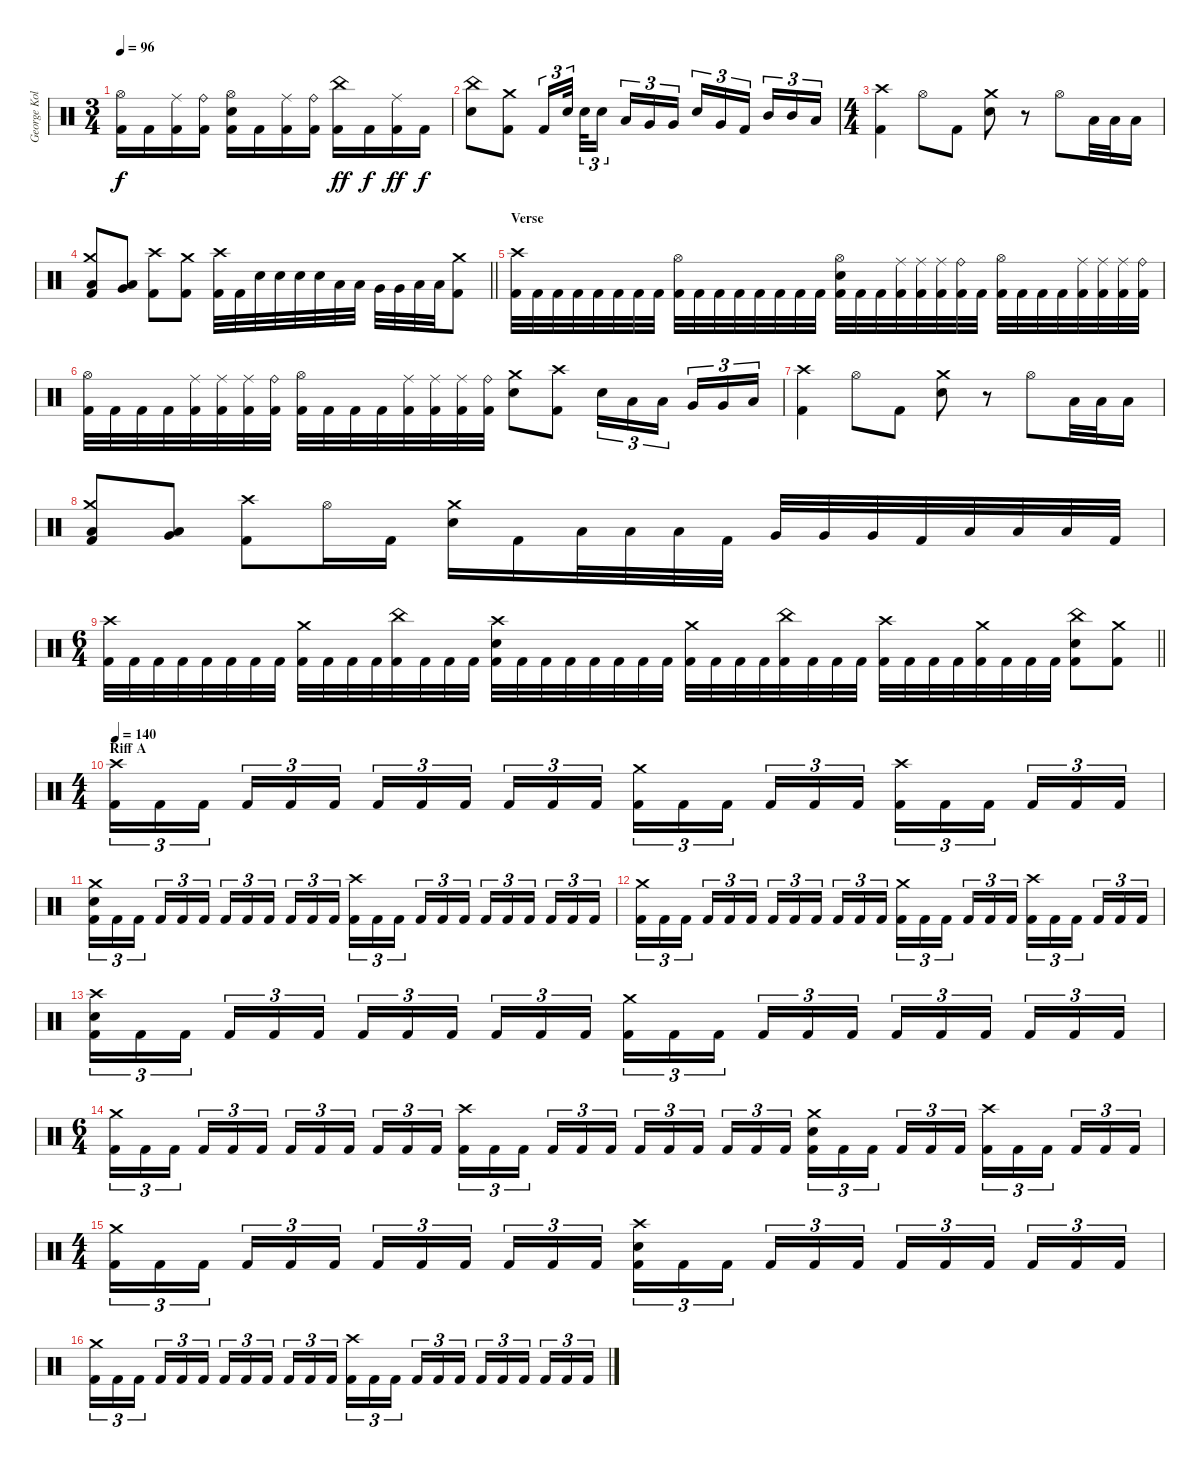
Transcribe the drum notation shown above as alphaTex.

\track ("George Kollias" "George Kol") {instrument percussion}
\staff {score}
\articulation defaults
\ts (3 4)
\tempo 96
\clef neutral
\ks c
("Hi-Hat (open)" "Kick (hit) 2").16{dy f} "Kick (hit) 2".16 ("Ride (middle)" "Kick (hit) 2").16 ("Ride (bell)" "Kick (hit) 2").16 ("Hi-Hat (open)" "Electric Snare (hit)" "Kick (hit) 2").16 "Kick (hit) 2".16 ("Ride (middle)" "Kick (hit) 2").16 ("Ride (bell)" "Kick (hit) 2").16 ("China (hit)" "Kick (hit) 2").16{dy ff} "Kick (hit) 2".16{dy f} ("Ride (middle)" "Kick (hit) 2").16{dy ff} "Kick (hit) 2".16{dy f} |
("China (hit)" "Electric Snare (hit)").8 ("Crash medium (hit)" "Kick (hit) 2").8 "Kick (hit) 2".16{tu (3 2)} "Electric Snare (hit)".32{tu (3 2) beam splitsecondary} "Electric Snare (hit)".32{tu (3 2)} "Electric Snare (hit)".16{tu (3 2) beam splitsecondary} "Low Tom (hit)".16{tu (3 2)} "Very Low Tom (hit)".16{tu (3 2)} "Very Low Tom (hit)".16{tu (3 2)} "Electric Snare (hit)".16{tu (3 2)} "Very Low Tom (hit)".16{tu (3 2)} "Kick (hit) 2".16{tu (3 2) beam splitsecondary} "Mid Tom (hit)".16{tu (3 2)} "Mid Tom (hit)".16{tu (3 2)} "Low Tom (hit)".16{tu (3 2)} |
\ts (4 4)
("Crash high (hit)" "Kick (hit) 2").4 "Hi-Hat (open)".8 "Kick (hit) 2".8 ("Crash medium (hit)" "Electric Snare (hit)").8 r.8 "Hi-Hat (open)".8 "Low Tom (hit)".32 "Low Tom (hit)".32 "Low Tom (hit)".16 |
\barLineRight lightlight
("Crash medium (hit)" "Low Floor Tom (hit)" "Kick (hit) 2").8 ("Very Low Tom (hit)" "Low Floor Tom (hit)").8 ("Crash high (hit)" "Kick (hit) 2").8 ("Crash medium (hit)" "Kick (hit) 2").8 ("Crash high (hit)" "Kick (hit) 2").32 "Kick (hit) 2".32 "Electric Snare (hit)".32 "Electric Snare (hit)".32 "Electric Snare (hit)".32 "Electric Snare (hit)".32 "Low Tom (hit)".32 "Low Tom (hit)".32 "Very Low Tom (hit)".32 "Very Low Tom (hit)".32 "Low Floor Tom (hit)".32 "Low Floor Tom (hit)".32 ("Crash medium (hit)" "Kick (hit) 2").8 |
\section ("" "Verse")
("Crash high (hit)" "Kick (hit) 2").32 "Kick (hit) 2".32 "Kick (hit) 2".32 "Kick (hit) 2".32 "Kick (hit) 2".32 "Kick (hit) 2".32 "Kick (hit) 2".32 "Kick (hit) 2".32 ("Hi-Hat (open)" "Kick (hit) 2").32 "Kick (hit) 2".32 "Kick (hit) 2".32 "Kick (hit) 2".32 "Kick (hit) 2".32 "Kick (hit) 2".32 "Kick (hit) 2".32 "Kick (hit) 2".32 ("Hi-Hat (open)" "Electric Snare (hit)" "Kick (hit) 2").32 "Kick (hit) 2".32 "Kick (hit) 2".32 ("Ride (middle)" "Kick (hit) 2").32 ("Ride (middle)" "Kick (hit) 2").32 ("Ride (middle)" "Kick (hit) 2").32 ("Ride (bell)" "Kick (hit) 2").32 "Kick (hit) 2".32 ("Hi-Hat (open)" "Kick (hit) 2").32 "Kick (hit) 2".32 "Kick (hit) 2".32 "Kick (hit) 2".32 ("Ride (middle)" "Kick (hit) 2").32 ("Ride (middle)" "Kick (hit) 2").32 ("Ride (middle)" "Kick (hit) 2").32 ("Ride (bell)" "Kick (hit) 2").32 |
("Hi-Hat (open)" "Kick (hit) 2").32 "Kick (hit) 2".32 "Kick (hit) 2".32 "Kick (hit) 2".32 ("Ride (middle)" "Kick (hit) 2").32 ("Ride (middle)" "Kick (hit) 2").32 ("Ride (middle)" "Kick (hit) 2").32 ("Ride (bell)" "Kick (hit) 2").32 ("Hi-Hat (open)" "Kick (hit) 2").32 "Kick (hit) 2".32 "Kick (hit) 2".32 "Kick (hit) 2".32 ("Ride (middle)" "Kick (hit) 2").32 ("Ride (middle)" "Kick (hit) 2").32 ("Ride (middle)" "Kick (hit) 2").32 ("Ride (bell)" "Kick (hit) 2").32 ("Crash medium (hit)" "Electric Snare (hit)").8 ("Crash high (hit)" "Kick (hit) 2").8 "Electric Snare (hit)".16{tu (3 2)} "Low Tom (hit)".16{tu (3 2)} "Low Tom (hit)".16{tu (3 2) beam splitsecondary} "Very Low Tom (hit)".16{tu (3 2)} "Very Low Tom (hit)".16{tu (3 2)} "Low Floor Tom (hit)".16{tu (3 2)} |
("Crash high (hit)" "Kick (hit) 2").4 "Hi-Hat (open)".8 "Kick (hit) 2".8 ("Crash medium (hit)" "Electric Snare (hit)").8 r.8 "Hi-Hat (open)".8 "Low Tom (hit)".32 "Low Tom (hit)".32 "Low Tom (hit)".16 |
("Crash medium (hit)" "Low Floor Tom (hit)" "Kick (hit) 2").8 ("Very Low Tom (hit)" "Low Floor Tom (hit)").8 ("Crash high (hit)" "Kick (hit) 2").8 "Hi-Hat (open)".16 "Kick (hit) 2".16 ("Crash medium (hit)" "Electric Snare (hit)").16 "Kick (hit) 2".16 "Low Tom (hit)".32 "Low Tom (hit)".32 "Low Tom (hit)".32 "Kick (hit) 2".32 "Very Low Tom (hit)".32 "Very Low Tom (hit)".32 "Very Low Tom (hit)".32 "Kick (hit) 2".32 "Low Floor Tom (hit)".32 "Low Floor Tom (hit)".32 "Low Floor Tom (hit)".32 "Kick (hit) 2".32 |
\ts (6 4)
\barLineRight lightlight
("Crash high (hit)" "Kick (hit) 2").32 "Kick (hit) 2".32 "Kick (hit) 2".32 "Kick (hit) 2".32 "Kick (hit) 2".32 "Kick (hit) 2".32 "Kick (hit) 2".32 "Kick (hit) 2".32 ("Crash medium (hit)" "Kick (hit) 2").32 "Kick (hit) 2".32 "Kick (hit) 2".32 "Kick (hit) 2".32 ("China (hit)" "Kick (hit) 2").32 "Kick (hit) 2".32 "Kick (hit) 2".32 "Kick (hit) 2".32 ("Crash high (hit)" "Electric Snare (hit)" "Kick (hit) 2").32 "Kick (hit) 2".32 "Kick (hit) 2".32 "Kick (hit) 2".32 "Kick (hit) 2".32 "Kick (hit) 2".32 "Kick (hit) 2".32 "Kick (hit) 2".32 ("Crash medium (hit)" "Kick (hit) 2").32 "Kick (hit) 2".32 "Kick (hit) 2".32 "Kick (hit) 2".32 ("China (hit)" "Kick (hit) 2").32 "Kick (hit) 2".32 "Kick (hit) 2".32 "Kick (hit) 2".32 ("Crash high (hit)" "Kick (hit) 2").32 "Kick (hit) 2".32 "Kick (hit) 2".32 "Kick (hit) 2".32 ("Crash medium (hit)" "Kick (hit) 2").32 "Kick (hit) 2".32 "Kick (hit) 2".32 "Kick (hit) 2".32 ("China (hit)" "Electric Snare (hit)" "Kick (hit) 2").8 ("Crash medium (hit)" "Kick (hit) 2").8 |
\ts (4 4)
\section ("" "Riff A")
\tempo 140
("Crash high (hit)" "Kick (hit) 2").16{tu (3 2)} "Kick (hit) 2".16{tu (3 2)} "Kick (hit) 2".16{tu (3 2) beam splitsecondary} "Kick (hit) 2".16{tu (3 2)} "Kick (hit) 2".16{tu (3 2)} "Kick (hit) 2".16{tu (3 2)} "Kick (hit) 2".16{tu (3 2)} "Kick (hit) 2".16{tu (3 2)} "Kick (hit) 2".16{tu (3 2) beam splitsecondary} "Kick (hit) 2".16{tu (3 2)} "Kick (hit) 2".16{tu (3 2)} "Kick (hit) 2".16{tu (3 2)} ("Crash medium (hit)" "Kick (hit) 2").16{tu (3 2)} "Kick (hit) 2".16{tu (3 2)} "Kick (hit) 2".16{tu (3 2) beam splitsecondary} "Kick (hit) 2".16{tu (3 2)} "Kick (hit) 2".16{tu (3 2)} "Kick (hit) 2".16{tu (3 2)} ("Crash high (hit)" "Kick (hit) 2").16{tu (3 2)} "Kick (hit) 2".16{tu (3 2)} "Kick (hit) 2".16{tu (3 2) beam splitsecondary} "Kick (hit) 2".16{tu (3 2)} "Kick (hit) 2".16{tu (3 2)} "Kick (hit) 2".16{tu (3 2)} |
("Crash medium (hit)" "Electric Snare (hit)" "Kick (hit) 2").16{tu (3 2)} "Kick (hit) 2".16{tu (3 2)} "Kick (hit) 2".16{tu (3 2) beam splitsecondary} "Kick (hit) 2".16{tu (3 2)} "Kick (hit) 2".16{tu (3 2)} "Kick (hit) 2".16{tu (3 2)} "Kick (hit) 2".16{tu (3 2)} "Kick (hit) 2".16{tu (3 2)} "Kick (hit) 2".16{tu (3 2) beam splitsecondary} "Kick (hit) 2".16{tu (3 2)} "Kick (hit) 2".16{tu (3 2)} "Kick (hit) 2".16{tu (3 2)} ("Crash high (hit)" "Kick (hit) 2").16{tu (3 2)} "Kick (hit) 2".16{tu (3 2)} "Kick (hit) 2".16{tu (3 2) beam splitsecondary} "Kick (hit) 2".16{tu (3 2)} "Kick (hit) 2".16{tu (3 2)} "Kick (hit) 2".16{tu (3 2)} "Kick (hit) 2".16{tu (3 2)} "Kick (hit) 2".16{tu (3 2)} "Kick (hit) 2".16{tu (3 2) beam splitsecondary} "Kick (hit) 2".16{tu (3 2)} "Kick (hit) 2".16{tu (3 2)} "Kick (hit) 2".16{tu (3 2)} |
("Crash medium (hit)" "Kick (hit) 2").16{tu (3 2)} "Kick (hit) 2".16{tu (3 2)} "Kick (hit) 2".16{tu (3 2) beam splitsecondary} "Kick (hit) 2".16{tu (3 2)} "Kick (hit) 2".16{tu (3 2)} "Kick (hit) 2".16{tu (3 2)} "Kick (hit) 2".16{tu (3 2)} "Kick (hit) 2".16{tu (3 2)} "Kick (hit) 2".16{tu (3 2) beam splitsecondary} "Kick (hit) 2".16{tu (3 2)} "Kick (hit) 2".16{tu (3 2)} "Kick (hit) 2".16{tu (3 2)} ("Crash medium (hit)" "Kick (hit) 2").16{tu (3 2)} "Kick (hit) 2".16{tu (3 2)} "Kick (hit) 2".16{tu (3 2) beam splitsecondary} "Kick (hit) 2".16{tu (3 2)} "Kick (hit) 2".16{tu (3 2)} "Kick (hit) 2".16{tu (3 2)} ("Crash high (hit)" "Kick (hit) 2").16{tu (3 2)} "Kick (hit) 2".16{tu (3 2)} "Kick (hit) 2".16{tu (3 2) beam splitsecondary} "Kick (hit) 2".16{tu (3 2)} "Kick (hit) 2".16{tu (3 2)} "Kick (hit) 2".16{tu (3 2)} |
("Crash high (hit)" "Electric Snare (hit)" "Kick (hit) 2").16{tu (3 2)} "Kick (hit) 2".16{tu (3 2)} "Kick (hit) 2".16{tu (3 2) beam splitsecondary} "Kick (hit) 2".16{tu (3 2)} "Kick (hit) 2".16{tu (3 2)} "Kick (hit) 2".16{tu (3 2)} "Kick (hit) 2".16{tu (3 2)} "Kick (hit) 2".16{tu (3 2)} "Kick (hit) 2".16{tu (3 2) beam splitsecondary} "Kick (hit) 2".16{tu (3 2)} "Kick (hit) 2".16{tu (3 2)} "Kick (hit) 2".16{tu (3 2)} ("Crash medium (hit)" "Kick (hit) 2").16{tu (3 2)} "Kick (hit) 2".16{tu (3 2)} "Kick (hit) 2".16{tu (3 2) beam splitsecondary} "Kick (hit) 2".16{tu (3 2)} "Kick (hit) 2".16{tu (3 2)} "Kick (hit) 2".16{tu (3 2)} "Kick (hit) 2".16{tu (3 2)} "Kick (hit) 2".16{tu (3 2)} "Kick (hit) 2".16{tu (3 2) beam splitsecondary} "Kick (hit) 2".16{tu (3 2)} "Kick (hit) 2".16{tu (3 2)} "Kick (hit) 2".16{tu (3 2)} |
\ts (6 4)
("Crash medium (hit)" "Kick (hit) 2").16{tu (3 2)} "Kick (hit) 2".16{tu (3 2)} "Kick (hit) 2".16{tu (3 2) beam splitsecondary} "Kick (hit) 2".16{tu (3 2)} "Kick (hit) 2".16{tu (3 2)} "Kick (hit) 2".16{tu (3 2) beam splitsecondary} "Kick (hit) 2".16{tu (3 2)} "Kick (hit) 2".16{tu (3 2)} "Kick (hit) 2".16{tu (3 2) beam splitsecondary} "Kick (hit) 2".16{tu (3 2)} "Kick (hit) 2".16{tu (3 2)} "Kick (hit) 2".16{tu (3 2) beam splitsecondary} ("Crash high (hit)" "Kick (hit) 2").16{tu (3 2)} "Kick (hit) 2".16{tu (3 2)} "Kick (hit) 2".16{tu (3 2) beam splitsecondary} "Kick (hit) 2".16{tu (3 2)} "Kick (hit) 2".16{tu (3 2)} "Kick (hit) 2".16{tu (3 2)} "Kick (hit) 2".16{tu (3 2)} "Kick (hit) 2".16{tu (3 2)} "Kick (hit) 2".16{tu (3 2) beam splitsecondary} "Kick (hit) 2".16{tu (3 2)} "Kick (hit) 2".16{tu (3 2)} "Kick (hit) 2".16{tu (3 2) beam splitsecondary} ("Crash medium (hit)" "Electric Snare (hit)" "Kick (hit) 2").16{tu (3 2)} "Kick (hit) 2".16{tu (3 2)} "Kick (hit) 2".16{tu (3 2) beam splitsecondary} "Kick (hit) 2".16{tu (3 2)} "Kick (hit) 2".16{tu (3 2)} "Kick (hit) 2".16{tu (3 2) beam splitsecondary} ("Crash high (hit)" "Kick (hit) 2").16{tu (3 2)} "Kick (hit) 2".16{tu (3 2)} "Kick (hit) 2".16{tu (3 2) beam splitsecondary} "Kick (hit) 2".16{tu (3 2)} "Kick (hit) 2".16{tu (3 2)} "Kick (hit) 2".16{tu (3 2)} |
\ts (4 4)
("Crash medium (hit)" "Kick (hit) 2").16{tu (3 2)} "Kick (hit) 2".16{tu (3 2)} "Kick (hit) 2".16{tu (3 2) beam splitsecondary} "Kick (hit) 2".16{tu (3 2)} "Kick (hit) 2".16{tu (3 2)} "Kick (hit) 2".16{tu (3 2)} "Kick (hit) 2".16{tu (3 2)} "Kick (hit) 2".16{tu (3 2)} "Kick (hit) 2".16{tu (3 2) beam splitsecondary} "Kick (hit) 2".16{tu (3 2)} "Kick (hit) 2".16{tu (3 2)} "Kick (hit) 2".16{tu (3 2)} ("Crash high (hit)" "Electric Snare (hit)" "Kick (hit) 2").16{tu (3 2)} "Kick (hit) 2".16{tu (3 2)} "Kick (hit) 2".16{tu (3 2) beam splitsecondary} "Kick (hit) 2".16{tu (3 2)} "Kick (hit) 2".16{tu (3 2)} "Kick (hit) 2".16{tu (3 2)} "Kick (hit) 2".16{tu (3 2)} "Kick (hit) 2".16{tu (3 2)} "Kick (hit) 2".16{tu (3 2) beam splitsecondary} "Kick (hit) 2".16{tu (3 2)} "Kick (hit) 2".16{tu (3 2)} "Kick (hit) 2".16{tu (3 2)} |
("Crash medium (hit)" "Kick (hit) 2").16{tu (3 2)} "Kick (hit) 2".16{tu (3 2)} "Kick (hit) 2".16{tu (3 2) beam splitsecondary} "Kick (hit) 2".16{tu (3 2)} "Kick (hit) 2".16{tu (3 2)} "Kick (hit) 2".16{tu (3 2)} "Kick (hit) 2".16{tu (3 2)} "Kick (hit) 2".16{tu (3 2)} "Kick (hit) 2".16{tu (3 2) beam splitsecondary} "Kick (hit) 2".16{tu (3 2)} "Kick (hit) 2".16{tu (3 2)} "Kick (hit) 2".16{tu (3 2)} ("Crash high (hit)" "Kick (hit) 2").16{tu (3 2)} "Kick (hit) 2".16{tu (3 2)} "Kick (hit) 2".16{tu (3 2) beam splitsecondary} "Kick (hit) 2".16{tu (3 2)} "Kick (hit) 2".16{tu (3 2)} "Kick (hit) 2".16{tu (3 2)} "Kick (hit) 2".16{tu (3 2)} "Kick (hit) 2".16{tu (3 2)} "Kick (hit) 2".16{tu (3 2) beam splitsecondary} "Kick (hit) 2".16{tu (3 2)} "Kick (hit) 2".16{tu (3 2)} "Kick (hit) 2".16{tu (3 2)}
